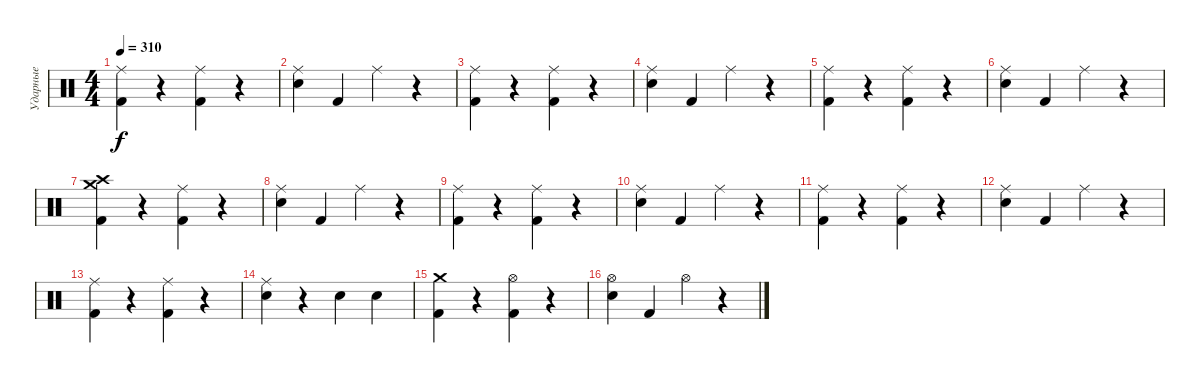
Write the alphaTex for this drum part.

\track ("Ударные" "Ударные") {instrument percussion}
\staff {score}
\articulation defaults
\ts (4 4)
\tempo 310
\clef neutral
\ks c
("Ride (middle)" "Kick (hit) 2").4{dy f} r.4 ("Ride (middle)" "Kick (hit) 2").4 r.4 |
("Ride (middle)" "Electric Snare (hit)").4 "Kick (hit) 2".4 "Ride (middle)".4 r.4 |
("Ride (middle)" "Kick (hit) 2").4 r.4 ("Ride (middle)" "Kick (hit) 2").4 r.4 |
("Ride (middle)" "Electric Snare (hit)").4 "Kick (hit) 2".4 "Ride (middle)".4 r.4 |
("Ride (middle)" "Kick (hit) 2").4 r.4 ("Ride (middle)" "Kick (hit) 2").4 r.4 |
("Ride (middle)" "Electric Snare (hit)").4 "Kick (hit) 2".4 "Ride (middle)".4 r.4 |
("Crash high (hit)" "Crash medium (hit)" "Kick (hit) 2").4 r.4 ("Ride (middle)" "Kick (hit) 2").4 r.4 |
("Ride (middle)" "Electric Snare (hit)").4 "Kick (hit) 2".4 "Ride (middle)".4 r.4 |
("Ride (middle)" "Kick (hit) 2").4 r.4 ("Ride (middle)" "Kick (hit) 2").4 r.4 |
("Ride (middle)" "Electric Snare (hit)").4 "Kick (hit) 2".4 "Ride (middle)".4 r.4 |
("Ride (middle)" "Kick (hit) 2").4 r.4 ("Ride (middle)" "Kick (hit) 2").4 r.4 |
("Ride (middle)" "Electric Snare (hit)").4 "Kick (hit) 2".4 "Ride (middle)".4 r.4 |
("Ride (middle)" "Kick (hit) 2").4 r.4 ("Ride (middle)" "Kick (hit) 2").4 r.4 |
("Ride (middle)" "Electric Snare (hit)").4 r.4 "Electric Snare (hit)".4 "Electric Snare (hit)".4 |
("Crash medium (hit)" "Kick (hit) 2").4 r.4 ("Hi-Hat (open)" "Kick (hit) 2").4 r.4 |
("Hi-Hat (open)" "Electric Snare (hit)").4 "Kick (hit) 2".4 "Hi-Hat (open)".4 r.4
